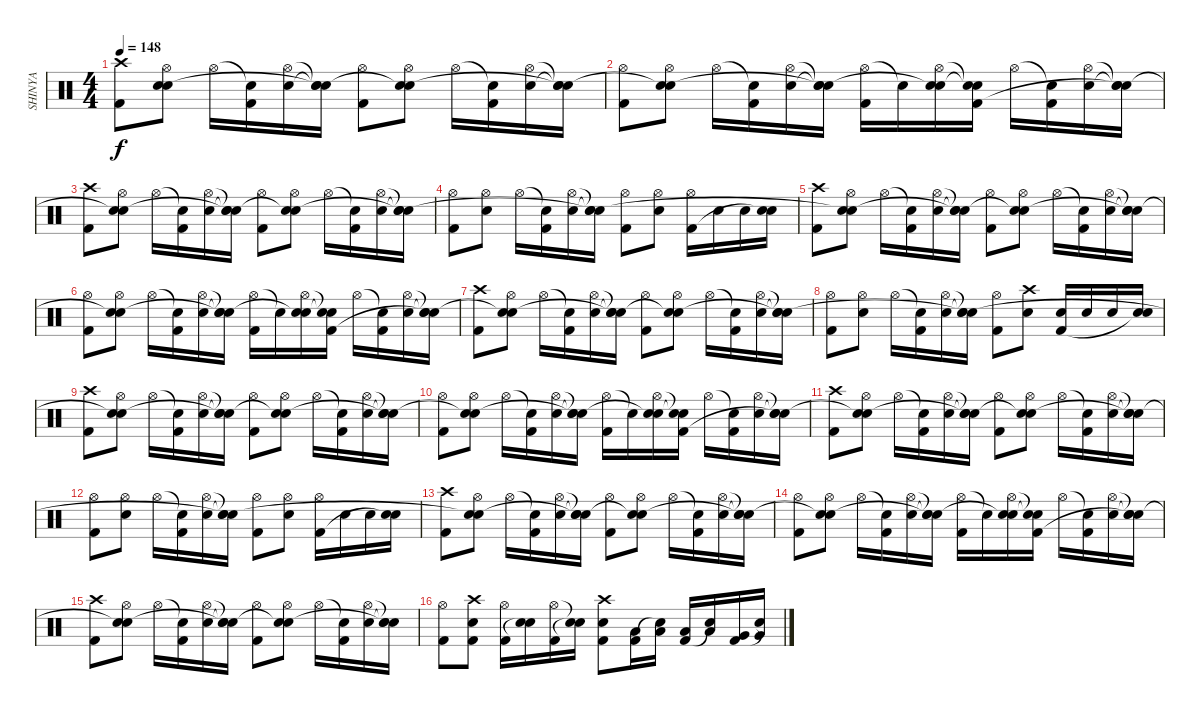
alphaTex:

\track ("SHINYA" "SHINYA") {instrument percussion}
\staff {score}
\articulation defaults
\ts (4 4)
\tempo 148
\clef neutral
\ks c
("Crash high (hit)" "Kick (hit) 2").8{dy f} ("Hi-Hat (open)" "Electric Snare (hit)" "Snare (hit)"{t}).8 "Hi-Hat (open)".16 ("Snare (hit)"{t} "Kick (hit) 2").16 ("Hi-Hat (open)" "Electric Snare (hit)").16 ("Snare (hit)"{t} "Electric Snare (hit)"{t} "Snare (hit)"{t}).16 ("Hi-Hat (open)" "Kick (hit) 2").8 ("Hi-Hat (open)" "Electric Snare (hit)" "Snare (hit)"{t}).8 "Hi-Hat (open)".16 ("Snare (hit)"{t} "Kick (hit) 2").16 ("Hi-Hat (open)" "Electric Snare (hit)").16 ("Snare (hit)"{t} "Electric Snare (hit)"{t} "Snare (hit)"{t}).16 |
("Hi-Hat (open)" "Kick (hit) 2").8 ("Hi-Hat (open)" "Electric Snare (hit)" "Snare (hit)"{t}).8 "Hi-Hat (open)".16 ("Snare (hit)"{t} "Kick (hit) 2").16 ("Hi-Hat (open)" "Electric Snare (hit)").16 ("Snare (hit)"{t} "Electric Snare (hit)"{t} "Snare (hit)"{t}).16 ("Hi-Hat (open)" "Kick (hit) 2").16 "Snare (hit)"{t}.16 ("Hi-Hat (open)" "Electric Snare (hit)" "Snare (hit)"{t}).16 ("Snare (hit)"{t} "Snare (hit)"{t} "Kick (hit) 2").16 "Hi-Hat (open)".16 ("Snare (hit)"{t} "Kick (hit) 2").16 ("Hi-Hat (open)" "Electric Snare (hit)").16 ("Snare (hit)"{t} "Electric Snare (hit)"{t} "Snare (hit)"{t}).16 |
("Crash high (hit)" "Kick (hit) 2").8 ("Hi-Hat (open)" "Electric Snare (hit)" "Snare (hit)"{t}).8 "Hi-Hat (open)".16 ("Snare (hit)"{t} "Kick (hit) 2").16 ("Hi-Hat (open)" "Electric Snare (hit)").16 ("Snare (hit)"{t} "Electric Snare (hit)"{t} "Snare (hit)"{t}).16 ("Hi-Hat (open)" "Kick (hit) 2").8 ("Hi-Hat (open)" "Electric Snare (hit)" "Snare (hit)"{t}).8 "Hi-Hat (open)".16 ("Snare (hit)"{t} "Kick (hit) 2").16 ("Hi-Hat (open)" "Electric Snare (hit)").16 ("Snare (hit)"{t} "Electric Snare (hit)"{t} "Snare (hit)"{t}).16 |
("Hi-Hat (open)" "Kick (hit) 2").8 ("Hi-Hat (open)" "Electric Snare (hit)").8 "Hi-Hat (open)".16 ("Snare (hit)"{t} "Kick (hit) 2").16 ("Hi-Hat (open)" "Electric Snare (hit)").16 ("Snare (hit)"{t} "Electric Snare (hit)"{t} "Snare (hit)"{t}).16 ("Hi-Hat (open)" "Kick (hit) 2").8 ("Hi-Hat (open)" "Electric Snare (hit)").8 ("Hi-Hat (open)" "Kick (hit) 2").16 "Electric Snare (hit)".16 "Electric Snare (hit)".16 ("Electric Snare (hit)" "Snare (hit)"{t}).16 |
("Crash high (hit)" "Kick (hit) 2").8 ("Hi-Hat (open)" "Electric Snare (hit)" "Snare (hit)"{t}).8 "Hi-Hat (open)".16 ("Snare (hit)"{t} "Kick (hit) 2").16 ("Hi-Hat (open)" "Electric Snare (hit)").16 ("Snare (hit)"{t} "Electric Snare (hit)"{t} "Snare (hit)"{t}).16 ("Hi-Hat (open)" "Kick (hit) 2").8 ("Hi-Hat (open)" "Electric Snare (hit)" "Snare (hit)"{t}).8 "Hi-Hat (open)".16 ("Snare (hit)"{t} "Kick (hit) 2").16 ("Hi-Hat (open)" "Electric Snare (hit)").16 ("Snare (hit)"{t} "Electric Snare (hit)"{t} "Snare (hit)"{t}).16 |
("Hi-Hat (open)" "Kick (hit) 2").8 ("Hi-Hat (open)" "Electric Snare (hit)" "Snare (hit)"{t}).8 "Hi-Hat (open)".16 ("Snare (hit)"{t} "Kick (hit) 2").16 ("Hi-Hat (open)" "Electric Snare (hit)").16 ("Snare (hit)"{t} "Electric Snare (hit)"{t} "Snare (hit)"{t}).16 ("Hi-Hat (open)" "Kick (hit) 2").16 "Snare (hit)"{t}.16 ("Hi-Hat (open)" "Electric Snare (hit)" "Snare (hit)"{t}).16 ("Snare (hit)"{t} "Snare (hit)"{t} "Kick (hit) 2").16 "Hi-Hat (open)".16 ("Snare (hit)"{t} "Kick (hit) 2").16 ("Hi-Hat (open)" "Electric Snare (hit)").16 ("Snare (hit)"{t} "Electric Snare (hit)"{t} "Snare (hit)"{t}).16 |
("Crash high (hit)" "Kick (hit) 2").8 ("Hi-Hat (open)" "Electric Snare (hit)" "Snare (hit)"{t}).8 "Hi-Hat (open)".16 ("Snare (hit)"{t} "Kick (hit) 2").16 ("Hi-Hat (open)" "Electric Snare (hit)").16 ("Snare (hit)"{t} "Electric Snare (hit)"{t} "Snare (hit)"{t}).16 ("Hi-Hat (open)" "Kick (hit) 2").8 ("Hi-Hat (open)" "Electric Snare (hit)" "Snare (hit)"{t}).8 "Hi-Hat (open)".16 ("Snare (hit)"{t} "Kick (hit) 2").16 ("Hi-Hat (open)" "Electric Snare (hit)").16 ("Snare (hit)"{t} "Electric Snare (hit)"{t} "Snare (hit)"{t}).16 |
("Hi-Hat (open)" "Kick (hit) 2").8 ("Hi-Hat (open)" "Electric Snare (hit)").8 "Hi-Hat (open)".16 ("Snare (hit)"{t} "Kick (hit) 2").16 ("Hi-Hat (open)" "Electric Snare (hit)").16 ("Snare (hit)"{t} "Electric Snare (hit)"{t} "Snare (hit)"{t}).16 ("Hi-Hat (open)" "Kick (hit) 2").8 ("Crash high (hit)" "Electric Snare (hit)").8 ("Electric Snare (hit)" "Kick (hit) 2").16 "Electric Snare (hit)".16 "Electric Snare (hit)".16 ("Electric Snare (hit)" "Snare (hit)"{t}).16 |
("Crash high (hit)" "Kick (hit) 2").8 ("Hi-Hat (open)" "Electric Snare (hit)" "Snare (hit)"{t}).8 "Hi-Hat (open)".16 ("Snare (hit)"{t} "Kick (hit) 2").16 ("Hi-Hat (open)" "Electric Snare (hit)").16 ("Snare (hit)"{t} "Electric Snare (hit)"{t} "Snare (hit)"{t}).16 ("Hi-Hat (open)" "Kick (hit) 2").8 ("Hi-Hat (open)" "Electric Snare (hit)" "Snare (hit)"{t}).8 "Hi-Hat (open)".16 ("Snare (hit)"{t} "Kick (hit) 2").16 ("Hi-Hat (open)" "Electric Snare (hit)").16 ("Snare (hit)"{t} "Electric Snare (hit)"{t} "Snare (hit)"{t}).16 |
("Hi-Hat (open)" "Kick (hit) 2").8 ("Hi-Hat (open)" "Electric Snare (hit)" "Snare (hit)"{t}).8 "Hi-Hat (open)".16 ("Snare (hit)"{t} "Kick (hit) 2").16 ("Hi-Hat (open)" "Electric Snare (hit)").16 ("Snare (hit)"{t} "Electric Snare (hit)"{t} "Snare (hit)"{t}).16 ("Hi-Hat (open)" "Kick (hit) 2").16 "Snare (hit)"{t}.16 ("Hi-Hat (open)" "Electric Snare (hit)" "Snare (hit)"{t}).16 ("Snare (hit)"{t} "Snare (hit)"{t} "Kick (hit) 2").16 "Hi-Hat (open)".16 ("Snare (hit)"{t} "Kick (hit) 2").16 ("Hi-Hat (open)" "Electric Snare (hit)").16 ("Snare (hit)"{t} "Electric Snare (hit)"{t} "Snare (hit)"{t}).16 |
("Crash high (hit)" "Kick (hit) 2").8 ("Hi-Hat (open)" "Electric Snare (hit)" "Snare (hit)"{t}).8 "Hi-Hat (open)".16 ("Snare (hit)"{t} "Kick (hit) 2").16 ("Hi-Hat (open)" "Electric Snare (hit)").16 ("Snare (hit)"{t} "Electric Snare (hit)"{t} "Snare (hit)"{t}).16 ("Hi-Hat (open)" "Kick (hit) 2").8 ("Hi-Hat (open)" "Electric Snare (hit)" "Snare (hit)"{t}).8 "Hi-Hat (open)".16 ("Snare (hit)"{t} "Kick (hit) 2").16 ("Hi-Hat (open)" "Electric Snare (hit)").16 ("Snare (hit)"{t} "Electric Snare (hit)"{t} "Snare (hit)"{t}).16 |
("Hi-Hat (open)" "Kick (hit) 2").8 ("Hi-Hat (open)" "Electric Snare (hit)").8 "Hi-Hat (open)".16 ("Snare (hit)"{t} "Kick (hit) 2").16 ("Hi-Hat (open)" "Electric Snare (hit)").16 ("Snare (hit)"{t} "Electric Snare (hit)"{t} "Snare (hit)"{t}).16 ("Hi-Hat (open)" "Kick (hit) 2").8 ("Hi-Hat (open)" "Electric Snare (hit)").8 ("Hi-Hat (open)" "Kick (hit) 2").16 "Electric Snare (hit)".16 "Electric Snare (hit)".16 ("Electric Snare (hit)" "Snare (hit)"{t}).16 |
("Crash high (hit)" "Kick (hit) 2").8 ("Hi-Hat (open)" "Electric Snare (hit)" "Snare (hit)"{t}).8 "Hi-Hat (open)".16 ("Snare (hit)"{t} "Kick (hit) 2").16 ("Hi-Hat (open)" "Electric Snare (hit)").16 ("Snare (hit)"{t} "Electric Snare (hit)"{t} "Snare (hit)"{t}).16 ("Hi-Hat (open)" "Kick (hit) 2").8 ("Hi-Hat (open)" "Electric Snare (hit)" "Snare (hit)"{t}).8 "Hi-Hat (open)".16 ("Snare (hit)"{t} "Kick (hit) 2").16 ("Hi-Hat (open)" "Electric Snare (hit)").16 ("Snare (hit)"{t} "Electric Snare (hit)"{t} "Snare (hit)"{t}).16 |
("Hi-Hat (open)" "Kick (hit) 2").8 ("Hi-Hat (open)" "Electric Snare (hit)" "Snare (hit)"{t}).8 "Hi-Hat (open)".16 ("Snare (hit)"{t} "Kick (hit) 2").16 ("Hi-Hat (open)" "Electric Snare (hit)").16 ("Snare (hit)"{t} "Electric Snare (hit)"{t} "Snare (hit)"{t}).16 ("Hi-Hat (open)" "Kick (hit) 2").16 "Snare (hit)"{t}.16 ("Hi-Hat (open)" "Electric Snare (hit)" "Snare (hit)"{t}).16 ("Snare (hit)"{t} "Snare (hit)"{t} "Kick (hit) 2").16 "Hi-Hat (open)".16 ("Snare (hit)"{t} "Kick (hit) 2").16 ("Hi-Hat (open)" "Electric Snare (hit)").16 ("Snare (hit)"{t} "Electric Snare (hit)"{t} "Snare (hit)"{t}).16 |
("Crash high (hit)" "Kick (hit) 2").8 ("Hi-Hat (open)" "Electric Snare (hit)" "Snare (hit)"{t}).8 "Hi-Hat (open)".16 ("Snare (hit)"{t} "Kick (hit) 2").16 ("Hi-Hat (open)" "Electric Snare (hit)").16 ("Snare (hit)"{t} "Electric Snare (hit)"{t} "Snare (hit)"{t}).16 ("Hi-Hat (open)" "Kick (hit) 2").8 ("Hi-Hat (open)" "Electric Snare (hit)" "Snare (hit)"{t}).8 "Hi-Hat (open)".16 ("Snare (hit)"{t} "Kick (hit) 2").16 ("Hi-Hat (open)" "Electric Snare (hit)").16 ("Snare (hit)"{t} "Electric Snare (hit)"{t} "Snare (hit)"{t}).16 |
("Hi-Hat (open)" "Kick (hit) 2").8 ("Crash high (hit)" "Electric Snare (hit)" "Kick (hit) 2").8 ("Hi-Hat (open)" "Kick (hit) 2").16 ("Electric Snare (hit)" "Snare (hit)"{t}).16 ("Hi-Hat (open)" "Kick (hit) 2").16 ("Snare (hit)"{t} "Snare (hit)"{t}).16 ("Crash high (hit)" "Electric Snare (hit)" "Kick (hit) 2").8 ("Low Tom (hit)" "Kick (hit) 2").16 ("Low Tom (hit)" "Snare (hit)"{t}).16 ("Low Tom (hit)" "Kick (hit) 2").16 ("Low Tom (hit)" "Snare (hit)"{t}).16 ("Very Low Tom (hit)" "Kick (hit) 2").16 ("Very Low Tom (hit)" "Snare (hit)"{t}).16
